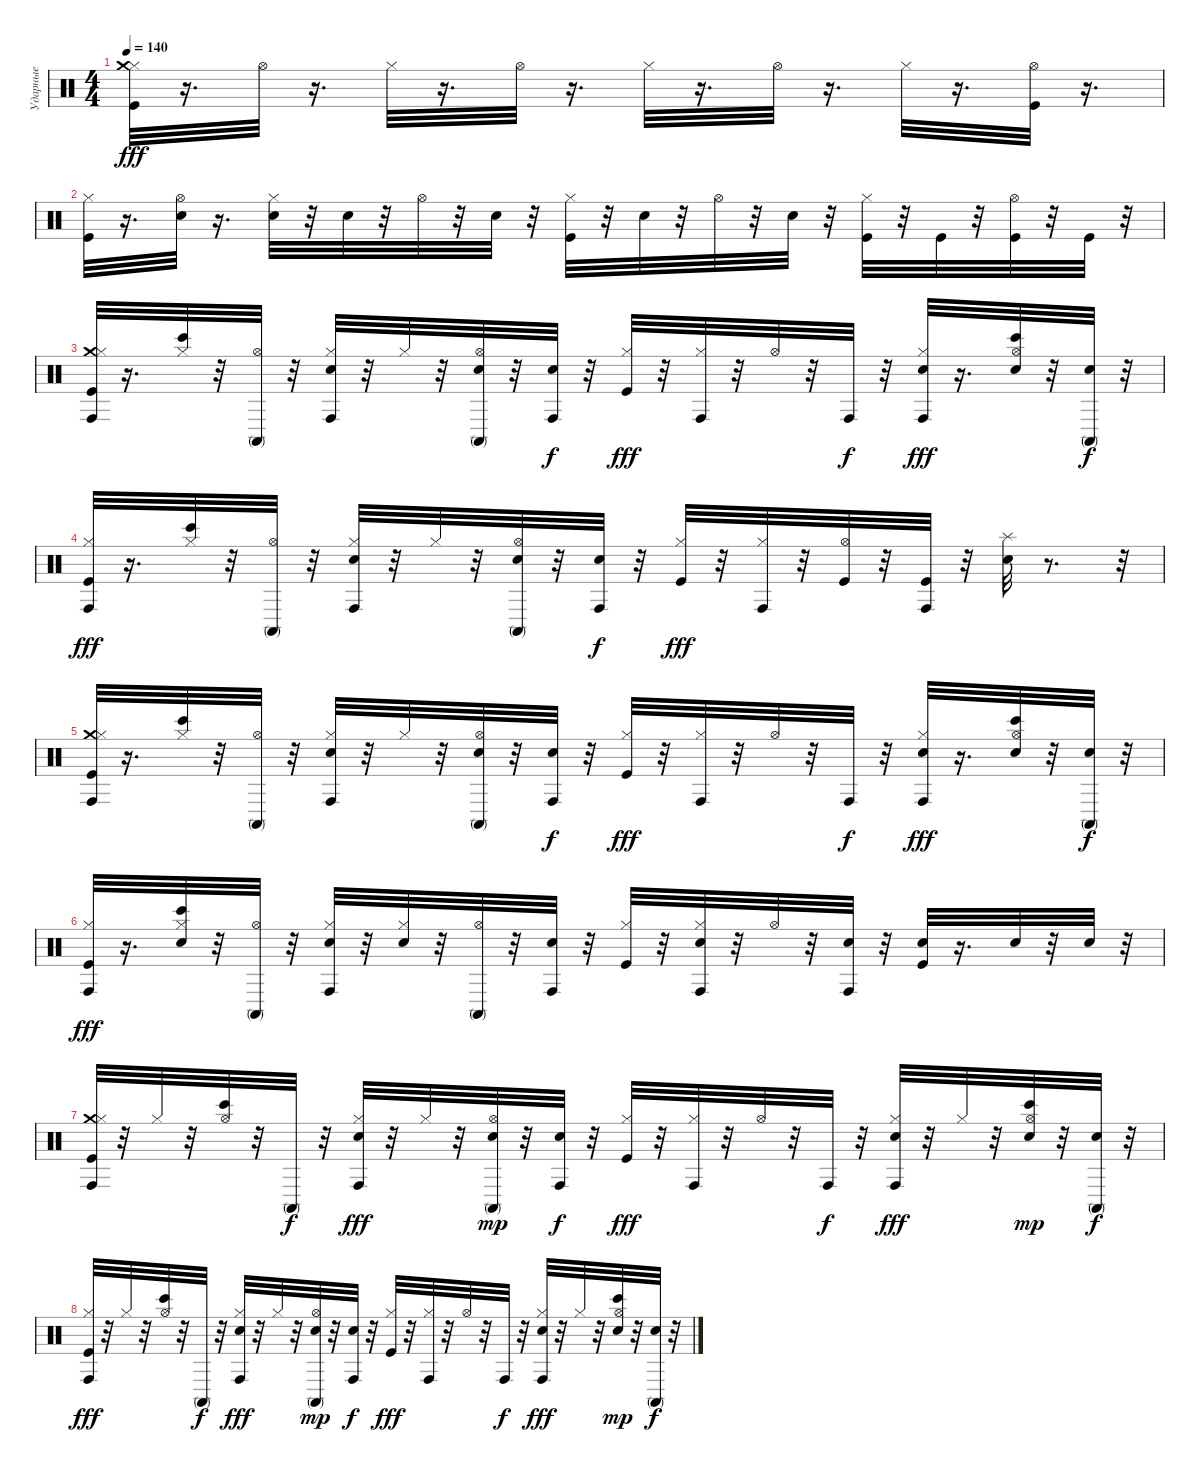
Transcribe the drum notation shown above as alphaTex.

\track ("Ударные" "Ударные") {instrument percussion}
\staff {score}
\articulation defaults
\ts (4 4)
\tempo 140
\clef neutral
\ks c
("Hi-Hat (closed)" "Kick (hit)" "Crash medium (hit)").32{dy fff} r.16{d} "Hi-Hat (open)".32 r.16{d} "Hi-Hat (closed)".32 r.16{d} "Hi-Hat (open)".32 r.16{d} "Hi-Hat (closed)".32 r.16{d} "Hi-Hat (open)".32 r.16{d} "Hi-Hat (closed)".32 r.16{d} ("Hi-Hat (open)" "Kick (hit)").32 r.16{d} |
("Hi-Hat (closed)" "Kick (hit)").32 r.16{d} ("Hi-Hat (open)" "Electric Snare (hit)").32 r.16{d} ("Hi-Hat (closed)" "Electric Snare (hit)").32 r.32 "Electric Snare (hit)".32 r.32 "Hi-Hat (open)".32 r.32 "Electric Snare (hit)".32 r.32 ("Hi-Hat (closed)" "Kick (hit)").32 r.32 "Electric Snare (hit)".32 r.32 "Hi-Hat (open)".32 r.32 "Electric Snare (hit)".32 r.32 ("Hi-Hat (closed)" "Kick (hit)").32 r.32 "Kick (hit)".32 r.32 ("Hi-Hat (open)" "Kick (hit)").32 r.32 "Kick (hit)".32 r.32 |
("Crash medium (hit)" "Kick (hit)" "Hi-Hat (closed)" "Conga high (hit)").32 r.16{d} ("Hi-Hat (closed)" "Bongo High (hit)").32 r.32 ("Hi-Hat (open)" "Conga high (mute)").32 r.32 ("Electric Snare (hit)" "Hi-Hat (closed)" "Conga high (hit)").32 r.32 "Hi-Hat (closed)".32 r.32 ("Electric Snare (hit)" "Hi-Hat (open)" "Conga high (mute)").32 r.32 ("Electric Snare (hit)" "Conga high (hit)").32{dy f} r.32 ("Kick (hit)" "Hi-Hat (closed)").32{dy fff} r.32 ("Hi-Hat (closed)" "Conga high (hit)").32 r.32 "Hi-Hat (open)".32 r.32 "Conga high (hit)".32{dy f} r.32 ("Electric Snare (hit)" "Hi-Hat (closed)" "Conga high (hit)").32{dy fff} r.16{d} ("Electric Snare (hit)" "Hi-Hat (open)" "Bongo High (hit)").32 r.32 ("Electric Snare (hit)" "Conga high (mute)").32{dy f} r.32 |
("Hi-Hat (closed)" "Kick (hit)" "Conga high (hit)").32{dy fff} r.16{d} ("Hi-Hat (closed)" "Bongo High (hit)").32 r.32 ("Hi-Hat (open)" "Conga high (mute)").32 r.32 ("Electric Snare (hit)" "Hi-Hat (closed)" "Conga high (hit)").32 r.32 "Hi-Hat (closed)".32 r.32 ("Electric Snare (hit)" "Hi-Hat (open)" "Conga high (mute)").32 r.32 ("Electric Snare (hit)" "Conga high (hit)").32{dy f} r.32 ("Kick (hit)" "Hi-Hat (closed)").32{dy fff} r.32 ("Hi-Hat (closed)" "Conga high (hit)").32 r.32 ("Hi-Hat (open)" "Kick (hit)").32 r.32 ("Kick (hit)" "Conga high (hit)").32 r.32 ("Electric Snare (hit)" "Splash (hit)").32 r.8{d} r.32 |
("Crash medium (hit)" "Kick (hit)" "Hi-Hat (closed)" "Conga high (hit)").32 r.16{d} ("Hi-Hat (closed)" "Bongo High (hit)").32 r.32 ("Hi-Hat (open)" "Conga high (mute)").32 r.32 ("Electric Snare (hit)" "Hi-Hat (closed)" "Conga high (hit)").32 r.32 "Hi-Hat (closed)".32 r.32 ("Electric Snare (hit)" "Hi-Hat (open)" "Conga high (mute)").32 r.32 ("Electric Snare (hit)" "Conga high (hit)").32{dy f} r.32 ("Kick (hit)" "Hi-Hat (closed)").32{dy fff} r.32 ("Hi-Hat (closed)" "Conga high (hit)").32 r.32 "Hi-Hat (open)".32 r.32 "Conga high (hit)".32{dy f} r.32 ("Electric Snare (hit)" "Hi-Hat (closed)" "Conga high (hit)").32{dy fff} r.16{d} ("Electric Snare (hit)" "Hi-Hat (open)" "Bongo High (hit)").32 r.32 ("Electric Snare (hit)" "Conga high (mute)").32{dy f} r.32 |
("Hi-Hat (closed)" "Kick (hit)" "Conga high (hit)").32{dy fff} r.16{d} ("Hi-Hat (closed)" "Bongo High (hit)" "Electric Snare (hit)").32 r.32 ("Hi-Hat (open)" "Conga high (mute)").32 r.32 ("Hi-Hat (closed)" "Conga high (hit)" "Electric Snare (hit)").32 r.32 ("Hi-Hat (closed)" "Electric Snare (hit)").32 r.32 ("Hi-Hat (open)" "Conga high (mute)").32 r.32 ("Conga high (hit)" "Electric Snare (hit)").32 r.32 ("Hi-Hat (closed)" "Kick (hit)").32 r.32 ("Hi-Hat (closed)" "Conga high (hit)" "Electric Snare (hit)").32 r.32 "Hi-Hat (open)".32 r.32 ("Conga high (hit)" "Electric Snare (hit)").32 r.32 ("Electric Snare (hit)" "Kick (hit)").32 r.16{d} "Electric Snare (hit)".32 r.32 "Electric Snare (hit)".32 r.32 |
("Conga high (hit)" "Crash medium (hit)" "Hi-Hat (closed)" "Kick (hit)").32 r.32 "Hi-Hat (closed)".32 r.32 ("Bongo High (hit)" "Hi-Hat (open)").32 r.32 "Conga high (mute)".32{dy f} r.32 ("Conga high (hit)" "Hi-Hat (closed)" "Electric Snare (hit)").32{dy fff} r.32 "Hi-Hat (closed)".32 r.32 ("Conga high (mute)" "Hi-Hat (open)" "Electric Snare (hit)").32{dy mp} r.32 ("Conga high (hit)" "Electric Snare (hit)").32{dy f} r.32 ("Hi-Hat (closed)" "Kick (hit)").32{dy fff} r.32 ("Conga high (hit)" "Hi-Hat (closed)").32 r.32 "Hi-Hat (open)".32 r.32 "Conga high (hit)".32{dy f} r.32 ("Conga high (hit)" "Hi-Hat (closed)" "Electric Snare (hit)").32{dy fff} r.32 "Hi-Hat (closed)".32 r.32 ("Bongo High (hit)" "Hi-Hat (open)" "Electric Snare (hit)").32{dy mp} r.32 ("Conga high (mute)" "Electric Snare (hit)").32{dy f} r.32 |
("Hi-Hat (closed)" "Kick (hit)" "Conga high (hit)").32{dy fff} r.32 "Hi-Hat (closed)".32 r.32 ("Hi-Hat (open)" "Bongo High (hit)").32 r.32 "Conga high (mute)".32{dy f} r.32 ("Hi-Hat (closed)" "Electric Snare (hit)" "Conga high (hit)").32{dy fff} r.32 "Hi-Hat (closed)".32 r.32 ("Hi-Hat (open)" "Electric Snare (hit)" "Conga high (mute)").32{dy mp} r.32 ("Electric Snare (hit)" "Conga high (hit)").32{dy f} r.32 ("Hi-Hat (closed)" "Kick (hit)").32{dy fff} r.32 ("Hi-Hat (closed)" "Conga high (hit)").32 r.32 "Hi-Hat (open)".32 r.32 "Conga high (hit)".32{dy f} r.32 ("Hi-Hat (closed)" "Electric Snare (hit)" "Conga high (hit)").32{dy fff} r.32 "Hi-Hat (closed)".32 r.32 ("Hi-Hat (open)" "Electric Snare (hit)" "Bongo High (hit)").32{dy mp} r.32 ("Electric Snare (hit)" "Conga high (mute)").32{dy f} r.32
